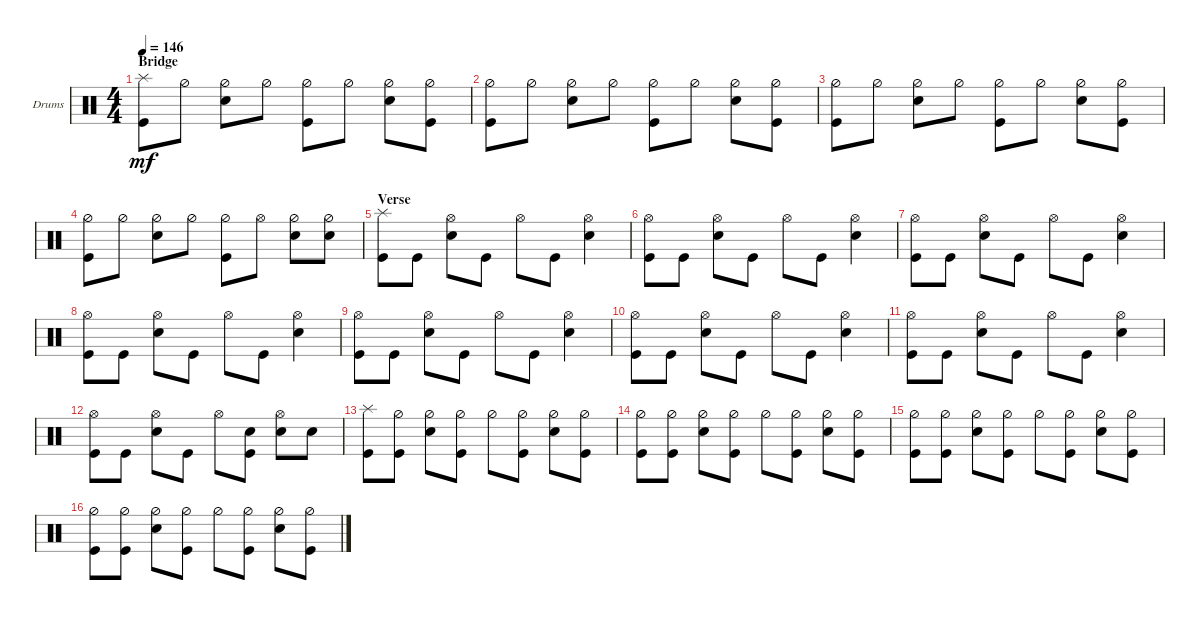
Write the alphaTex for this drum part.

\defaultSystemsLayout 4
\bracketExtendMode groupsimilarinstruments
\firstSystemTrackNameOrientation horizontal
\otherSystemsTrackNameOrientation horizontal
\track ("Drums" "Drums") {instrument percussion}
\staff {score}
\articulation defaults
\ts (4 4)
\section ("" "Bridge")
\tempo 146
\clef neutral
\ks c
("Kick (hit)" "Splash (hit)").8{dy mf} "Hi-Hat (half)".8 ("Snare (hit) 2" "Hi-Hat (half)").8 "Hi-Hat (half)".8 ("Hi-Hat (half)" "Kick (hit)").8 "Hi-Hat (half)".8 ("Hi-Hat (half)" "Snare (hit) 2").8 ("Hi-Hat (half)" "Kick (hit)").8 |
("Hi-Hat (half)" "Kick (hit)").8 "Hi-Hat (half)".8 ("Hi-Hat (half)" "Snare (hit) 2").8 "Hi-Hat (half)".8 ("Hi-Hat (half)" "Kick (hit)").8 "Hi-Hat (half)".8 ("Hi-Hat (half)" "Snare (hit) 2").8 ("Hi-Hat (half)" "Kick (hit)").8 |
("Hi-Hat (half)" "Kick (hit)").8 "Hi-Hat (half)".8 ("Hi-Hat (half)" "Snare (hit) 2").8 "Hi-Hat (half)".8 ("Hi-Hat (half)" "Kick (hit)").8 "Hi-Hat (half)".8 ("Hi-Hat (half)" "Snare (hit) 2").8 ("Hi-Hat (half)" "Kick (hit)").8 |
("Hi-Hat (half)" "Kick (hit)").8 "Hi-Hat (half)".8 ("Hi-Hat (half)" "Snare (hit) 2").8 "Hi-Hat (half)".8 ("Hi-Hat (half)" "Kick (hit)").8 "Hi-Hat (open)".8 ("Hi-Hat (half)" "Snare (hit) 2").8 ("Hi-Hat (half)" "Snare (hit) 2").8 |
\section ("" "Verse")
("Kick (hit)" "Splash (hit)").8 "Kick (hit)".8 ("Snare (hit) 2" "Hi-Hat (open)").8 "Kick (hit)".8 "Hi-Hat (open)".8 "Kick (hit)".8 ("Snare (hit) 2" "Hi-Hat (open)").4 |
("Kick (hit)" "Hi-Hat (open)").8 "Kick (hit)".8 ("Snare (hit) 2" "Hi-Hat (open)").8 "Kick (hit)".8 "Hi-Hat (open)".8 "Kick (hit)".8 ("Snare (hit) 2" "Hi-Hat (open)").4 |
("Kick (hit)" "Hi-Hat (open)").8 "Kick (hit)".8 ("Snare (hit) 2" "Hi-Hat (open)").8 "Kick (hit)".8 "Hi-Hat (open)".8 "Kick (hit)".8 ("Snare (hit) 2" "Hi-Hat (open)").4 |
("Kick (hit)" "Hi-Hat (open)").8 "Kick (hit)".8 ("Snare (hit) 2" "Hi-Hat (open)").8 "Kick (hit)".8 "Hi-Hat (open)".8 "Kick (hit)".8 ("Snare (hit) 2" "Hi-Hat (open)").4 |
("Kick (hit)" "Hi-Hat (open)").8 "Kick (hit)".8 ("Snare (hit) 2" "Hi-Hat (open)").8 "Kick (hit)".8 "Hi-Hat (open)".8 "Kick (hit)".8 ("Snare (hit) 2" "Hi-Hat (open)").4 |
("Kick (hit)" "Hi-Hat (open)").8 "Kick (hit)".8 ("Snare (hit) 2" "Hi-Hat (open)").8 "Kick (hit)".8 "Hi-Hat (open)".8 "Kick (hit)".8 ("Snare (hit) 2" "Hi-Hat (open)").4 |
("Kick (hit)" "Hi-Hat (open)").8 "Kick (hit)".8 ("Snare (hit) 2" "Hi-Hat (open)").8 "Kick (hit)".8 "Hi-Hat (open)".8 "Kick (hit)".8 ("Snare (hit) 2" "Hi-Hat (open)").4 |
("Kick (hit)" "Hi-Hat (open)").8 "Kick (hit)".8 ("Snare (hit) 2" "Hi-Hat (open)").8 "Kick (hit)".8 "Hi-Hat (open)".8 ("Kick (hit)" "Snare (hit) 2").8 ("Snare (hit) 2" "Hi-Hat (open)").8 "Snare (hit) 2".8 |
("Kick (hit)" "Splash (hit)").8 ("Kick (hit)" "Hi-Hat (half)").8 ("Snare (hit) 2" "Hi-Hat (half)").8 ("Kick (hit)" "Hi-Hat (half)").8 "Hi-Hat (half)".8 ("Kick (hit)" "Hi-Hat (half)").8 ("Snare (hit) 2" "Hi-Hat (half)").8 ("Kick (hit)" "Hi-Hat (half)").8 |
("Kick (hit)" "Hi-Hat (half)").8 ("Kick (hit)" "Hi-Hat (half)").8 ("Snare (hit) 2" "Hi-Hat (half)").8 ("Kick (hit)" "Hi-Hat (half)").8 "Hi-Hat (half)".8 ("Kick (hit)" "Hi-Hat (half)").8 ("Snare (hit) 2" "Hi-Hat (half)").8 ("Kick (hit)" "Hi-Hat (half)").8 |
("Kick (hit)" "Hi-Hat (half)").8 ("Kick (hit)" "Hi-Hat (half)").8 ("Snare (hit) 2" "Hi-Hat (half)").8 ("Kick (hit)" "Hi-Hat (half)").8 "Hi-Hat (half)".8 ("Kick (hit)" "Hi-Hat (half)").8 ("Snare (hit) 2" "Hi-Hat (half)").8 ("Kick (hit)" "Hi-Hat (half)").8 |
("Kick (hit)" "Hi-Hat (half)").8 ("Kick (hit)" "Hi-Hat (half)").8 ("Snare (hit) 2" "Hi-Hat (half)").8 ("Kick (hit)" "Hi-Hat (half)").8 "Hi-Hat (half)".8 ("Kick (hit)" "Hi-Hat (half)").8 ("Snare (hit) 2" "Hi-Hat (half)").8 ("Kick (hit)" "Hi-Hat (half)").8
